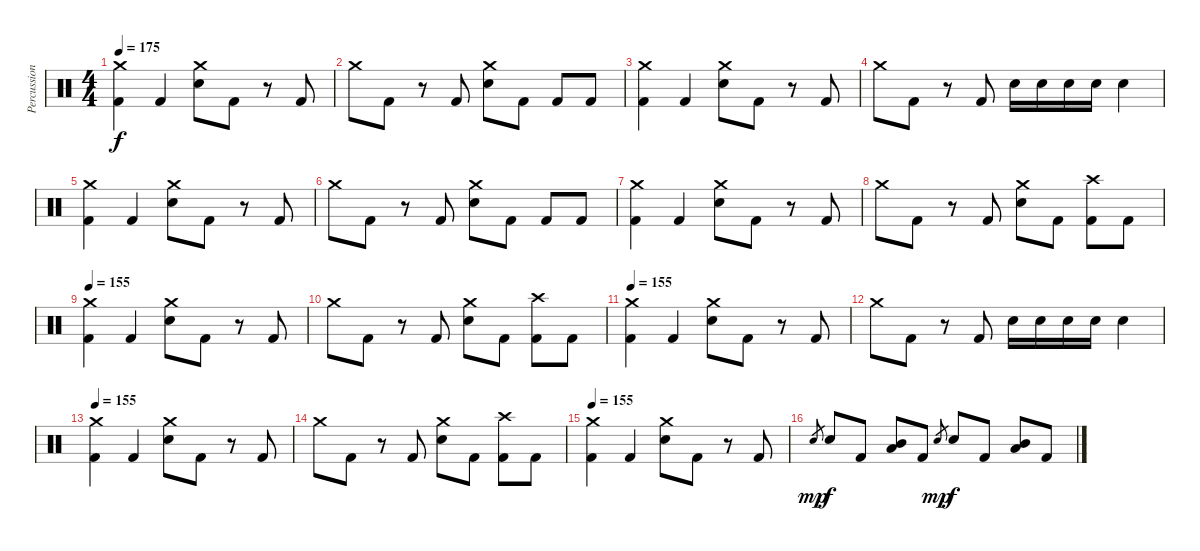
\track ("Percussion" "Percussion") {instrument percussion}
\staff {score}
\articulation defaults
\ts (4 4)
\tempo 175
\clef neutral
\ks c
("Kick (hit) 2" "Crash medium (hit)").4{dy f} "Kick (hit) 2".4 ("Electric Snare (hit)" "Crash medium (hit)").8 "Kick (hit) 2".8 r.8 "Kick (hit) 2".8 |
"Crash medium (hit)".8 "Kick (hit) 2".8 r.8 "Kick (hit) 2".8 ("Electric Snare (hit)" "Crash medium (hit)").8 "Kick (hit) 2".8 "Kick (hit) 2".8 "Kick (hit) 2".8 |
("Kick (hit) 2" "Crash medium (hit)").4 "Kick (hit) 2".4 ("Electric Snare (hit)" "Crash medium (hit)").8 "Kick (hit) 2".8 r.8 "Kick (hit) 2".8 |
"Crash medium (hit)".8 "Kick (hit) 2".8 r.8 "Kick (hit) 2".8 "Electric Snare (hit)".16 "Electric Snare (hit)".16 "Electric Snare (hit)".16 "Electric Snare (hit)".16 "Electric Snare (hit)".4 |
("Kick (hit) 2" "Crash medium (hit)").4 "Kick (hit) 2".4 ("Electric Snare (hit)" "Crash medium (hit)").8 "Kick (hit) 2".8 r.8 "Kick (hit) 2".8 |
"Crash medium (hit)".8 "Kick (hit) 2".8 r.8 "Kick (hit) 2".8 ("Electric Snare (hit)" "Crash medium (hit)").8 "Kick (hit) 2".8 "Kick (hit) 2".8 "Kick (hit) 2".8 |
("Kick (hit) 2" "Crash medium (hit)").4 "Kick (hit) 2".4 ("Electric Snare (hit)" "Crash medium (hit)").8 "Kick (hit) 2".8 r.8 "Kick (hit) 2".8 |
"Crash medium (hit)".8 "Kick (hit) 2".8 r.8 "Kick (hit) 2".8 ("Electric Snare (hit)" "Crash medium (hit)").8 "Kick (hit) 2".8 ("Kick (hit) 2" "Crash high (hit)").8 "Kick (hit) 2".8 |
\tempo 155
("Kick (hit) 2" "Crash medium (hit)").4 "Kick (hit) 2".4 ("Electric Snare (hit)" "Crash medium (hit)").8 "Kick (hit) 2".8 r.8 "Kick (hit) 2".8 |
"Crash medium (hit)".8 "Kick (hit) 2".8 r.8 "Kick (hit) 2".8 ("Electric Snare (hit)" "Crash medium (hit)").8 "Kick (hit) 2".8 ("Kick (hit) 2" "Crash high (hit)").8 "Kick (hit) 2".8 |
\tempo 155
("Kick (hit) 2" "Crash medium (hit)").4 "Kick (hit) 2".4 ("Electric Snare (hit)" "Crash medium (hit)").8 "Kick (hit) 2".8 r.8 "Kick (hit) 2".8 |
"Crash medium (hit)".8 "Kick (hit) 2".8 r.8 "Kick (hit) 2".8 "Electric Snare (hit)".16 "Electric Snare (hit)".16 "Electric Snare (hit)".16 "Electric Snare (hit)".16 "Electric Snare (hit)".4 |
\tempo 155
("Kick (hit) 2" "Crash medium (hit)").4 "Kick (hit) 2".4 ("Electric Snare (hit)" "Crash medium (hit)").8 "Kick (hit) 2".8 r.8 "Kick (hit) 2".8 |
"Crash medium (hit)".8 "Kick (hit) 2".8 r.8 "Kick (hit) 2".8 ("Electric Snare (hit)" "Crash medium (hit)").8 "Kick (hit) 2".8 ("Kick (hit) 2" "Crash high (hit)").8 "Kick (hit) 2".8 |
\tempo 155
("Kick (hit) 2" "Crash medium (hit)").4 "Kick (hit) 2".4 ("Electric Snare (hit)" "Crash medium (hit)").8 "Kick (hit) 2".8 r.8 "Kick (hit) 2".8 |
"Electric Snare (hit)".8{gr dy mp} "Electric Snare (hit)".8{dy f} "Kick (hit) 2".8 ("Low Tom (hit)" "Mid Tom (hit)").8 "Kick (hit) 2".8 "Electric Snare (hit)".8{gr dy mp} "Electric Snare (hit)".8{dy f} "Kick (hit) 2".8 ("Low Tom (hit)" "Mid Tom (hit)").8 "Kick (hit) 2".8
